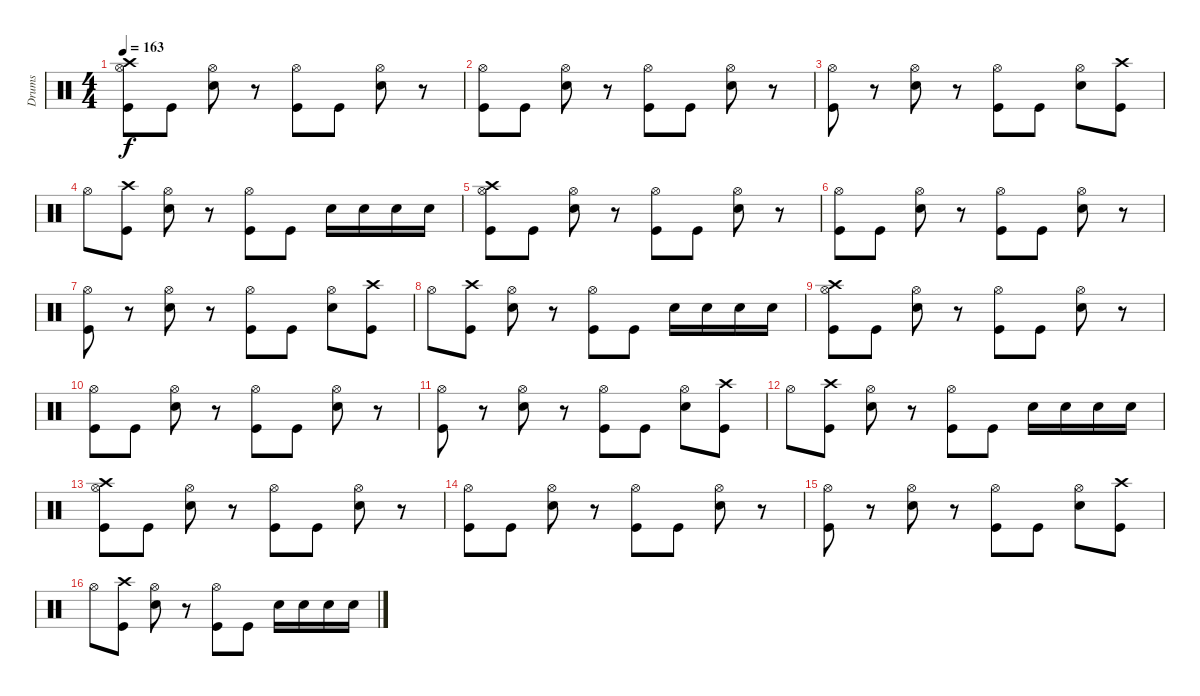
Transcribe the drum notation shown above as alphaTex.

\track ("Drums" "Drums") {instrument percussion}
\staff {score}
\articulation defaults
\ts (4 4)
\tempo 163
\clef neutral
\ks c
("Crash high (hit)" "Kick (hit)" "Hi-Hat (open)").8{dy f volume 10} "Kick (hit)".8 ("Electric Snare (hit)" "Hi-Hat (open)").8 r.8 ("Kick (hit)" "Hi-Hat (open)").8 "Kick (hit)".8 ("Electric Snare (hit)" "Hi-Hat (open)").8 r.8 |
("Kick (hit)" "Hi-Hat (open)").8 "Kick (hit)".8 ("Electric Snare (hit)" "Hi-Hat (open)").8 r.8 ("Kick (hit)" "Hi-Hat (open)").8 "Kick (hit)".8 ("Electric Snare (hit)" "Hi-Hat (open)").8 r.8 |
("Kick (hit)" "Hi-Hat (open)").8 r.8 ("Electric Snare (hit)" "Hi-Hat (open)").8 r.8 ("Kick (hit)" "Hi-Hat (open)").8 "Kick (hit)".8 ("Electric Snare (hit)" "Hi-Hat (open)").8 ("Kick (hit)" "Crash high (hit)").8 |
"Hi-Hat (open)".8 ("Kick (hit)" "Crash high (hit)").8 ("Electric Snare (hit)" "Hi-Hat (open)").8 r.8 ("Kick (hit)" "Hi-Hat (open)").8 "Kick (hit)".8 "Snare (hit) 2".16 "Snare (hit) 2".16 "Snare (hit) 2".16 "Snare (hit) 2".16 |
("Crash high (hit)" "Kick (hit)" "Hi-Hat (open)").8{volume 10} "Kick (hit)".8 ("Electric Snare (hit)" "Hi-Hat (open)").8 r.8 ("Kick (hit)" "Hi-Hat (open)").8 "Kick (hit)".8 ("Electric Snare (hit)" "Hi-Hat (open)").8 r.8 |
("Kick (hit)" "Hi-Hat (open)").8 "Kick (hit)".8 ("Electric Snare (hit)" "Hi-Hat (open)").8 r.8 ("Kick (hit)" "Hi-Hat (open)").8 "Kick (hit)".8 ("Electric Snare (hit)" "Hi-Hat (open)").8 r.8 |
("Kick (hit)" "Hi-Hat (open)").8 r.8 ("Electric Snare (hit)" "Hi-Hat (open)").8 r.8 ("Kick (hit)" "Hi-Hat (open)").8 "Kick (hit)".8 ("Electric Snare (hit)" "Hi-Hat (open)").8 ("Kick (hit)" "Crash high (hit)").8 |
"Hi-Hat (open)".8 ("Kick (hit)" "Crash high (hit)").8 ("Electric Snare (hit)" "Hi-Hat (open)").8 r.8 ("Kick (hit)" "Hi-Hat (open)").8 "Kick (hit)".8 "Snare (hit) 2".16 "Snare (hit) 2".16 "Snare (hit) 2".16 "Snare (hit) 2".16 |
("Crash high (hit)" "Kick (hit)" "Hi-Hat (open)").8{volume 10} "Kick (hit)".8 ("Electric Snare (hit)" "Hi-Hat (open)").8 r.8 ("Kick (hit)" "Hi-Hat (open)").8 "Kick (hit)".8 ("Electric Snare (hit)" "Hi-Hat (open)").8 r.8 |
("Kick (hit)" "Hi-Hat (open)").8 "Kick (hit)".8 ("Electric Snare (hit)" "Hi-Hat (open)").8 r.8 ("Kick (hit)" "Hi-Hat (open)").8 "Kick (hit)".8 ("Electric Snare (hit)" "Hi-Hat (open)").8 r.8 |
("Kick (hit)" "Hi-Hat (open)").8 r.8 ("Electric Snare (hit)" "Hi-Hat (open)").8 r.8 ("Kick (hit)" "Hi-Hat (open)").8 "Kick (hit)".8 ("Electric Snare (hit)" "Hi-Hat (open)").8 ("Kick (hit)" "Crash high (hit)").8 |
"Hi-Hat (open)".8 ("Kick (hit)" "Crash high (hit)").8 ("Electric Snare (hit)" "Hi-Hat (open)").8 r.8 ("Kick (hit)" "Hi-Hat (open)").8 "Kick (hit)".8 "Snare (hit) 2".16 "Snare (hit) 2".16 "Snare (hit) 2".16 "Snare (hit) 2".16 |
("Crash high (hit)" "Kick (hit)" "Hi-Hat (open)").8{volume 10} "Kick (hit)".8 ("Electric Snare (hit)" "Hi-Hat (open)").8 r.8 ("Kick (hit)" "Hi-Hat (open)").8 "Kick (hit)".8 ("Electric Snare (hit)" "Hi-Hat (open)").8 r.8 |
("Kick (hit)" "Hi-Hat (open)").8 "Kick (hit)".8 ("Electric Snare (hit)" "Hi-Hat (open)").8 r.8 ("Kick (hit)" "Hi-Hat (open)").8 "Kick (hit)".8 ("Electric Snare (hit)" "Hi-Hat (open)").8 r.8 |
("Kick (hit)" "Hi-Hat (open)").8 r.8 ("Electric Snare (hit)" "Hi-Hat (open)").8 r.8 ("Kick (hit)" "Hi-Hat (open)").8 "Kick (hit)".8 ("Electric Snare (hit)" "Hi-Hat (open)").8 ("Kick (hit)" "Crash high (hit)").8 |
"Hi-Hat (open)".8 ("Kick (hit)" "Crash high (hit)").8 ("Electric Snare (hit)" "Hi-Hat (open)").8 r.8 ("Kick (hit)" "Hi-Hat (open)").8 "Kick (hit)".8 "Snare (hit) 2".16 "Snare (hit) 2".16 "Snare (hit) 2".16 "Snare (hit) 2".16
